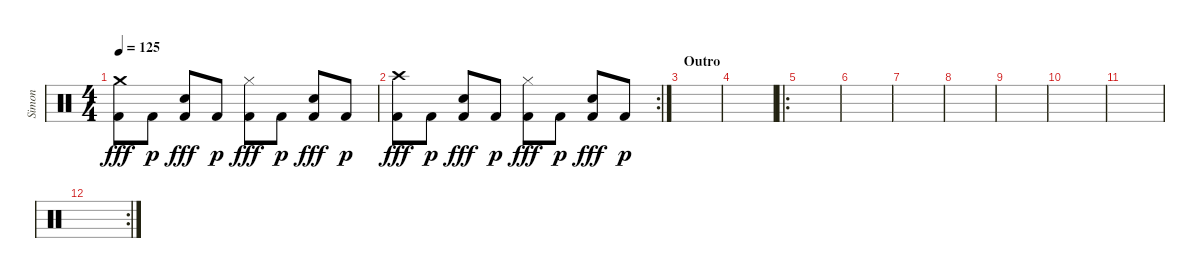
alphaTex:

\track ("Simon" "Simon") {instrument percussion}
\staff {score}
\articulation defaults
\ts (4 4)
\tempo 125
\clef neutral
\ks c
("Crash medium (hit)" "Kick (hit) 2").8{dy fff} "Kick (hit) 2".8{dy p} ("Snare (hit) 2" "Kick (hit) 2").8{dy fff} "Kick (hit) 2".8{dy p} ("Hi-Hat (closed)" "Kick (hit) 2").8{dy fff} "Kick (hit) 2".8{dy p} ("Snare (hit) 2" "Kick (hit) 2").8{dy fff} "Kick (hit) 2".8{dy p} |
\rc 2
("Crash high (hit)" "Kick (hit) 2").8{dy fff} "Kick (hit) 2".8{dy p} ("Snare (hit) 2" "Kick (hit) 2").8{dy fff} "Kick (hit) 2".8{dy p} ("Hi-Hat (closed)" "Kick (hit) 2").8{dy fff} "Kick (hit) 2".8{dy p} ("Snare (hit) 2" "Kick (hit) 2").8{dy fff} "Kick (hit) 2".8{dy p} |
\section ("" "Outro")
|
|
\ro
|
|
|
|
|
|
|
\rc 2
